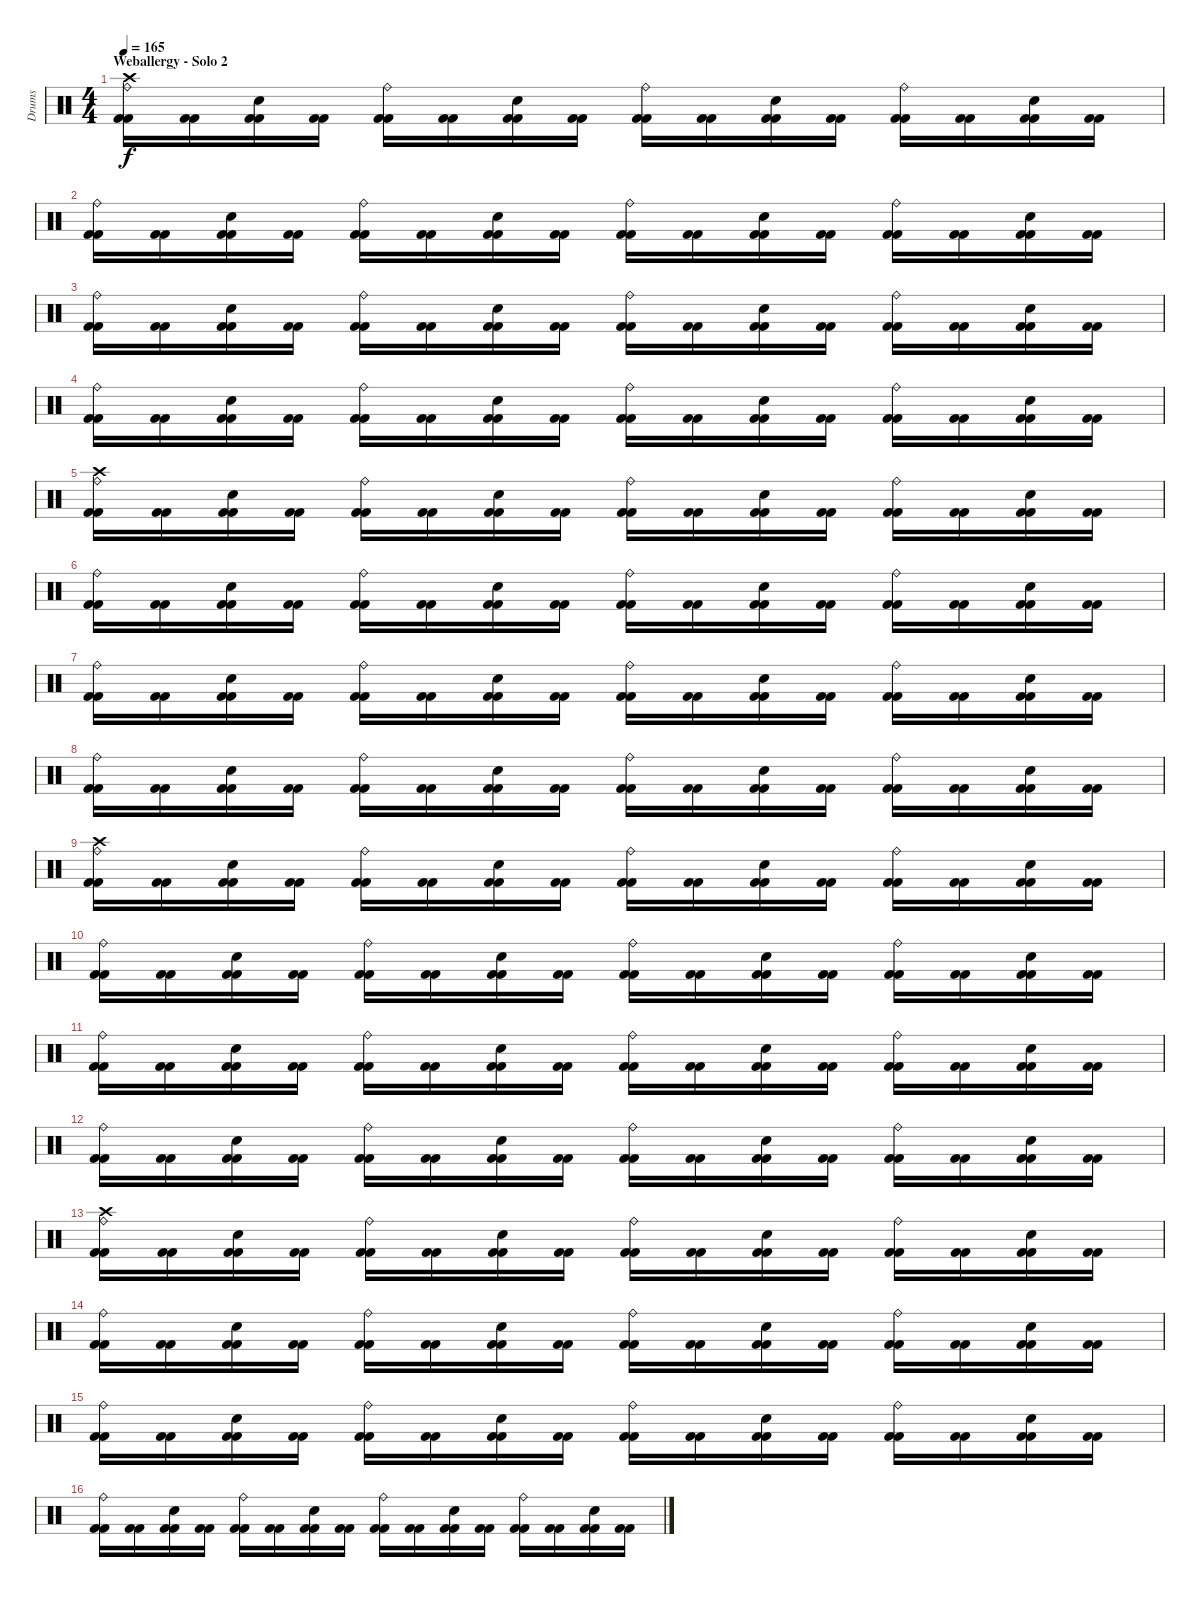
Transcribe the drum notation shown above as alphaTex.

\track ("Drums" "Drums") {instrument percussion}
\staff {score}
\articulation defaults
\ts (4 4)
\section ("" "Weballergy - Solo 2")
\tempo 165
\clef neutral
\ks c
("Kick (hit) 2" "Kick (hit) 2" "Ride (bell)" "Crash high (hit)").16{dy f} ("Kick (hit) 2" "Kick (hit) 2").16 ("Kick (hit) 2" "Kick (hit) 2" "Electric Snare (hit)").16 ("Kick (hit) 2" "Kick (hit) 2").16 ("Kick (hit) 2" "Kick (hit) 2" "Ride (bell)").16 ("Kick (hit) 2" "Kick (hit) 2").16 ("Kick (hit) 2" "Kick (hit) 2" "Electric Snare (hit)").16 ("Kick (hit) 2" "Kick (hit) 2").16 ("Kick (hit) 2" "Kick (hit) 2" "Ride (bell)").16 ("Kick (hit) 2" "Kick (hit) 2").16 ("Kick (hit) 2" "Kick (hit) 2" "Electric Snare (hit)").16 ("Kick (hit) 2" "Kick (hit) 2").16 ("Kick (hit) 2" "Kick (hit) 2" "Ride (bell)").16 ("Kick (hit) 2" "Kick (hit) 2").16 ("Kick (hit) 2" "Kick (hit) 2" "Electric Snare (hit)").16 ("Kick (hit) 2" "Kick (hit) 2").16 |
("Kick (hit) 2" "Kick (hit) 2" "Ride (bell)").16 ("Kick (hit) 2" "Kick (hit) 2").16 ("Kick (hit) 2" "Kick (hit) 2" "Electric Snare (hit)").16 ("Kick (hit) 2" "Kick (hit) 2").16 ("Kick (hit) 2" "Kick (hit) 2" "Ride (bell)").16 ("Kick (hit) 2" "Kick (hit) 2").16 ("Kick (hit) 2" "Kick (hit) 2" "Electric Snare (hit)").16 ("Kick (hit) 2" "Kick (hit) 2").16 ("Kick (hit) 2" "Kick (hit) 2" "Ride (bell)").16 ("Kick (hit) 2" "Kick (hit) 2").16 ("Kick (hit) 2" "Kick (hit) 2" "Electric Snare (hit)").16 ("Kick (hit) 2" "Kick (hit) 2").16 ("Kick (hit) 2" "Kick (hit) 2" "Ride (bell)").16 ("Kick (hit) 2" "Kick (hit) 2").16 ("Kick (hit) 2" "Kick (hit) 2" "Electric Snare (hit)").16 ("Kick (hit) 2" "Kick (hit) 2").16 |
("Kick (hit) 2" "Kick (hit) 2" "Ride (bell)").16 ("Kick (hit) 2" "Kick (hit) 2").16 ("Kick (hit) 2" "Kick (hit) 2" "Electric Snare (hit)").16 ("Kick (hit) 2" "Kick (hit) 2").16 ("Kick (hit) 2" "Kick (hit) 2" "Ride (bell)").16 ("Kick (hit) 2" "Kick (hit) 2").16 ("Kick (hit) 2" "Kick (hit) 2" "Electric Snare (hit)").16 ("Kick (hit) 2" "Kick (hit) 2").16 ("Kick (hit) 2" "Kick (hit) 2" "Ride (bell)").16 ("Kick (hit) 2" "Kick (hit) 2").16 ("Kick (hit) 2" "Kick (hit) 2" "Electric Snare (hit)").16 ("Kick (hit) 2" "Kick (hit) 2").16 ("Kick (hit) 2" "Kick (hit) 2" "Ride (bell)").16 ("Kick (hit) 2" "Kick (hit) 2").16 ("Kick (hit) 2" "Kick (hit) 2" "Electric Snare (hit)").16 ("Kick (hit) 2" "Kick (hit) 2").16 |
("Kick (hit) 2" "Kick (hit) 2" "Ride (bell)").16 ("Kick (hit) 2" "Kick (hit) 2").16 ("Kick (hit) 2" "Kick (hit) 2" "Electric Snare (hit)").16 ("Kick (hit) 2" "Kick (hit) 2").16 ("Kick (hit) 2" "Kick (hit) 2" "Ride (bell)").16 ("Kick (hit) 2" "Kick (hit) 2").16 ("Kick (hit) 2" "Kick (hit) 2" "Electric Snare (hit)").16 ("Kick (hit) 2" "Kick (hit) 2").16 ("Kick (hit) 2" "Kick (hit) 2" "Ride (bell)").16 ("Kick (hit) 2" "Kick (hit) 2").16 ("Kick (hit) 2" "Kick (hit) 2" "Electric Snare (hit)").16 ("Kick (hit) 2" "Kick (hit) 2").16 ("Kick (hit) 2" "Kick (hit) 2" "Ride (bell)").16 ("Kick (hit) 2" "Kick (hit) 2").16 ("Kick (hit) 2" "Kick (hit) 2" "Electric Snare (hit)").16 ("Kick (hit) 2" "Kick (hit) 2").16 |
("Kick (hit) 2" "Kick (hit) 2" "Ride (bell)" "Crash high (hit)").16 ("Kick (hit) 2" "Kick (hit) 2").16 ("Kick (hit) 2" "Kick (hit) 2" "Electric Snare (hit)").16 ("Kick (hit) 2" "Kick (hit) 2").16 ("Kick (hit) 2" "Kick (hit) 2" "Ride (bell)").16 ("Kick (hit) 2" "Kick (hit) 2").16 ("Kick (hit) 2" "Kick (hit) 2" "Electric Snare (hit)").16 ("Kick (hit) 2" "Kick (hit) 2").16 ("Kick (hit) 2" "Kick (hit) 2" "Ride (bell)").16 ("Kick (hit) 2" "Kick (hit) 2").16 ("Kick (hit) 2" "Kick (hit) 2" "Electric Snare (hit)").16 ("Kick (hit) 2" "Kick (hit) 2").16 ("Kick (hit) 2" "Kick (hit) 2" "Ride (bell)").16 ("Kick (hit) 2" "Kick (hit) 2").16 ("Kick (hit) 2" "Kick (hit) 2" "Electric Snare (hit)").16 ("Kick (hit) 2" "Kick (hit) 2").16 |
("Kick (hit) 2" "Kick (hit) 2" "Ride (bell)").16 ("Kick (hit) 2" "Kick (hit) 2").16 ("Kick (hit) 2" "Kick (hit) 2" "Electric Snare (hit)").16 ("Kick (hit) 2" "Kick (hit) 2").16 ("Kick (hit) 2" "Kick (hit) 2" "Ride (bell)").16 ("Kick (hit) 2" "Kick (hit) 2").16 ("Kick (hit) 2" "Kick (hit) 2" "Electric Snare (hit)").16 ("Kick (hit) 2" "Kick (hit) 2").16 ("Kick (hit) 2" "Kick (hit) 2" "Ride (bell)").16 ("Kick (hit) 2" "Kick (hit) 2").16 ("Kick (hit) 2" "Kick (hit) 2" "Electric Snare (hit)").16 ("Kick (hit) 2" "Kick (hit) 2").16 ("Kick (hit) 2" "Kick (hit) 2" "Ride (bell)").16 ("Kick (hit) 2" "Kick (hit) 2").16 ("Kick (hit) 2" "Kick (hit) 2" "Electric Snare (hit)").16 ("Kick (hit) 2" "Kick (hit) 2").16 |
("Kick (hit) 2" "Kick (hit) 2" "Ride (bell)").16 ("Kick (hit) 2" "Kick (hit) 2").16 ("Kick (hit) 2" "Kick (hit) 2" "Electric Snare (hit)").16 ("Kick (hit) 2" "Kick (hit) 2").16 ("Kick (hit) 2" "Kick (hit) 2" "Ride (bell)").16 ("Kick (hit) 2" "Kick (hit) 2").16 ("Kick (hit) 2" "Kick (hit) 2" "Electric Snare (hit)").16 ("Kick (hit) 2" "Kick (hit) 2").16 ("Kick (hit) 2" "Kick (hit) 2" "Ride (bell)").16 ("Kick (hit) 2" "Kick (hit) 2").16 ("Kick (hit) 2" "Kick (hit) 2" "Electric Snare (hit)").16 ("Kick (hit) 2" "Kick (hit) 2").16 ("Kick (hit) 2" "Kick (hit) 2" "Ride (bell)").16 ("Kick (hit) 2" "Kick (hit) 2").16 ("Kick (hit) 2" "Kick (hit) 2" "Electric Snare (hit)").16 ("Kick (hit) 2" "Kick (hit) 2").16 |
("Kick (hit) 2" "Kick (hit) 2" "Ride (bell)").16 ("Kick (hit) 2" "Kick (hit) 2").16 ("Kick (hit) 2" "Kick (hit) 2" "Electric Snare (hit)").16 ("Kick (hit) 2" "Kick (hit) 2").16 ("Kick (hit) 2" "Kick (hit) 2" "Ride (bell)").16 ("Kick (hit) 2" "Kick (hit) 2").16 ("Kick (hit) 2" "Kick (hit) 2" "Electric Snare (hit)").16 ("Kick (hit) 2" "Kick (hit) 2").16 ("Kick (hit) 2" "Kick (hit) 2" "Ride (bell)").16 ("Kick (hit) 2" "Kick (hit) 2").16 ("Kick (hit) 2" "Kick (hit) 2" "Electric Snare (hit)").16 ("Kick (hit) 2" "Kick (hit) 2").16 ("Kick (hit) 2" "Kick (hit) 2" "Ride (bell)").16 ("Kick (hit) 2" "Kick (hit) 2").16 ("Kick (hit) 2" "Kick (hit) 2" "Electric Snare (hit)").16 ("Kick (hit) 2" "Kick (hit) 2").16 |
("Kick (hit) 2" "Kick (hit) 2" "Ride (bell)" "Crash high (hit)").16 ("Kick (hit) 2" "Kick (hit) 2").16 ("Kick (hit) 2" "Kick (hit) 2" "Electric Snare (hit)").16 ("Kick (hit) 2" "Kick (hit) 2").16 ("Kick (hit) 2" "Kick (hit) 2" "Ride (bell)").16 ("Kick (hit) 2" "Kick (hit) 2").16 ("Kick (hit) 2" "Kick (hit) 2" "Electric Snare (hit)").16 ("Kick (hit) 2" "Kick (hit) 2").16 ("Kick (hit) 2" "Kick (hit) 2" "Ride (bell)").16 ("Kick (hit) 2" "Kick (hit) 2").16 ("Kick (hit) 2" "Kick (hit) 2" "Electric Snare (hit)").16 ("Kick (hit) 2" "Kick (hit) 2").16 ("Kick (hit) 2" "Kick (hit) 2" "Ride (bell)").16 ("Kick (hit) 2" "Kick (hit) 2").16 ("Kick (hit) 2" "Kick (hit) 2" "Electric Snare (hit)").16 ("Kick (hit) 2" "Kick (hit) 2").16 |
("Kick (hit) 2" "Kick (hit) 2" "Ride (bell)").16 ("Kick (hit) 2" "Kick (hit) 2").16 ("Kick (hit) 2" "Kick (hit) 2" "Electric Snare (hit)").16 ("Kick (hit) 2" "Kick (hit) 2").16 ("Kick (hit) 2" "Kick (hit) 2" "Ride (bell)").16 ("Kick (hit) 2" "Kick (hit) 2").16 ("Kick (hit) 2" "Kick (hit) 2" "Electric Snare (hit)").16 ("Kick (hit) 2" "Kick (hit) 2").16 ("Kick (hit) 2" "Kick (hit) 2" "Ride (bell)").16 ("Kick (hit) 2" "Kick (hit) 2").16 ("Kick (hit) 2" "Kick (hit) 2" "Electric Snare (hit)").16 ("Kick (hit) 2" "Kick (hit) 2").16 ("Kick (hit) 2" "Kick (hit) 2" "Ride (bell)").16 ("Kick (hit) 2" "Kick (hit) 2").16 ("Kick (hit) 2" "Kick (hit) 2" "Electric Snare (hit)").16 ("Kick (hit) 2" "Kick (hit) 2").16 |
("Kick (hit) 2" "Kick (hit) 2" "Ride (bell)").16 ("Kick (hit) 2" "Kick (hit) 2").16 ("Kick (hit) 2" "Kick (hit) 2" "Electric Snare (hit)").16 ("Kick (hit) 2" "Kick (hit) 2").16 ("Kick (hit) 2" "Kick (hit) 2" "Ride (bell)").16 ("Kick (hit) 2" "Kick (hit) 2").16 ("Kick (hit) 2" "Kick (hit) 2" "Electric Snare (hit)").16 ("Kick (hit) 2" "Kick (hit) 2").16 ("Kick (hit) 2" "Kick (hit) 2" "Ride (bell)").16 ("Kick (hit) 2" "Kick (hit) 2").16 ("Kick (hit) 2" "Kick (hit) 2" "Electric Snare (hit)").16 ("Kick (hit) 2" "Kick (hit) 2").16 ("Kick (hit) 2" "Kick (hit) 2" "Ride (bell)").16 ("Kick (hit) 2" "Kick (hit) 2").16 ("Kick (hit) 2" "Kick (hit) 2" "Electric Snare (hit)").16 ("Kick (hit) 2" "Kick (hit) 2").16 |
("Kick (hit) 2" "Kick (hit) 2" "Ride (bell)").16 ("Kick (hit) 2" "Kick (hit) 2").16 ("Kick (hit) 2" "Kick (hit) 2" "Electric Snare (hit)").16 ("Kick (hit) 2" "Kick (hit) 2").16 ("Kick (hit) 2" "Kick (hit) 2" "Ride (bell)").16 ("Kick (hit) 2" "Kick (hit) 2").16 ("Kick (hit) 2" "Kick (hit) 2" "Electric Snare (hit)").16 ("Kick (hit) 2" "Kick (hit) 2").16 ("Kick (hit) 2" "Kick (hit) 2" "Ride (bell)").16 ("Kick (hit) 2" "Kick (hit) 2").16 ("Kick (hit) 2" "Kick (hit) 2" "Electric Snare (hit)").16 ("Kick (hit) 2" "Kick (hit) 2").16 ("Kick (hit) 2" "Kick (hit) 2" "Ride (bell)").16 ("Kick (hit) 2" "Kick (hit) 2").16 ("Kick (hit) 2" "Kick (hit) 2" "Electric Snare (hit)").16 ("Kick (hit) 2" "Kick (hit) 2").16 |
("Kick (hit) 2" "Kick (hit) 2" "Ride (bell)" "Crash high (hit)").16 ("Kick (hit) 2" "Kick (hit) 2").16 ("Kick (hit) 2" "Kick (hit) 2" "Electric Snare (hit)").16 ("Kick (hit) 2" "Kick (hit) 2").16 ("Kick (hit) 2" "Kick (hit) 2" "Ride (bell)").16 ("Kick (hit) 2" "Kick (hit) 2").16 ("Kick (hit) 2" "Kick (hit) 2" "Electric Snare (hit)").16 ("Kick (hit) 2" "Kick (hit) 2").16 ("Kick (hit) 2" "Kick (hit) 2" "Ride (bell)").16 ("Kick (hit) 2" "Kick (hit) 2").16 ("Kick (hit) 2" "Kick (hit) 2" "Electric Snare (hit)").16 ("Kick (hit) 2" "Kick (hit) 2").16 ("Kick (hit) 2" "Kick (hit) 2" "Ride (bell)").16 ("Kick (hit) 2" "Kick (hit) 2").16 ("Kick (hit) 2" "Kick (hit) 2" "Electric Snare (hit)").16 ("Kick (hit) 2" "Kick (hit) 2").16 |
("Kick (hit) 2" "Kick (hit) 2" "Ride (bell)").16 ("Kick (hit) 2" "Kick (hit) 2").16 ("Kick (hit) 2" "Kick (hit) 2" "Electric Snare (hit)").16 ("Kick (hit) 2" "Kick (hit) 2").16 ("Kick (hit) 2" "Kick (hit) 2" "Ride (bell)").16 ("Kick (hit) 2" "Kick (hit) 2").16 ("Kick (hit) 2" "Kick (hit) 2" "Electric Snare (hit)").16 ("Kick (hit) 2" "Kick (hit) 2").16 ("Kick (hit) 2" "Kick (hit) 2" "Ride (bell)").16 ("Kick (hit) 2" "Kick (hit) 2").16 ("Kick (hit) 2" "Kick (hit) 2" "Electric Snare (hit)").16 ("Kick (hit) 2" "Kick (hit) 2").16 ("Kick (hit) 2" "Kick (hit) 2" "Ride (bell)").16 ("Kick (hit) 2" "Kick (hit) 2").16 ("Kick (hit) 2" "Kick (hit) 2" "Electric Snare (hit)").16 ("Kick (hit) 2" "Kick (hit) 2").16 |
("Kick (hit) 2" "Kick (hit) 2" "Ride (bell)").16 ("Kick (hit) 2" "Kick (hit) 2").16 ("Kick (hit) 2" "Kick (hit) 2" "Electric Snare (hit)").16 ("Kick (hit) 2" "Kick (hit) 2").16 ("Kick (hit) 2" "Kick (hit) 2" "Ride (bell)").16 ("Kick (hit) 2" "Kick (hit) 2").16 ("Kick (hit) 2" "Kick (hit) 2" "Electric Snare (hit)").16 ("Kick (hit) 2" "Kick (hit) 2").16 ("Kick (hit) 2" "Kick (hit) 2" "Ride (bell)").16 ("Kick (hit) 2" "Kick (hit) 2").16 ("Kick (hit) 2" "Kick (hit) 2" "Electric Snare (hit)").16 ("Kick (hit) 2" "Kick (hit) 2").16 ("Kick (hit) 2" "Kick (hit) 2" "Ride (bell)").16 ("Kick (hit) 2" "Kick (hit) 2").16 ("Kick (hit) 2" "Kick (hit) 2" "Electric Snare (hit)").16 ("Kick (hit) 2" "Kick (hit) 2").16 |
("Kick (hit) 2" "Kick (hit) 2" "Ride (bell)").16 ("Kick (hit) 2" "Kick (hit) 2").16 ("Kick (hit) 2" "Kick (hit) 2" "Electric Snare (hit)").16 ("Kick (hit) 2" "Kick (hit) 2").16 ("Kick (hit) 2" "Kick (hit) 2" "Ride (bell)").16 ("Kick (hit) 2" "Kick (hit) 2").16 ("Kick (hit) 2" "Kick (hit) 2" "Electric Snare (hit)").16 ("Kick (hit) 2" "Kick (hit) 2").16 ("Kick (hit) 2" "Kick (hit) 2" "Ride (bell)").16 ("Kick (hit) 2" "Kick (hit) 2").16 ("Kick (hit) 2" "Kick (hit) 2" "Electric Snare (hit)").16 ("Kick (hit) 2" "Kick (hit) 2").16 ("Kick (hit) 2" "Kick (hit) 2" "Ride (bell)").16 ("Kick (hit) 2" "Kick (hit) 2").16 ("Kick (hit) 2" "Kick (hit) 2" "Electric Snare (hit)").16 ("Kick (hit) 2" "Kick (hit) 2").16
